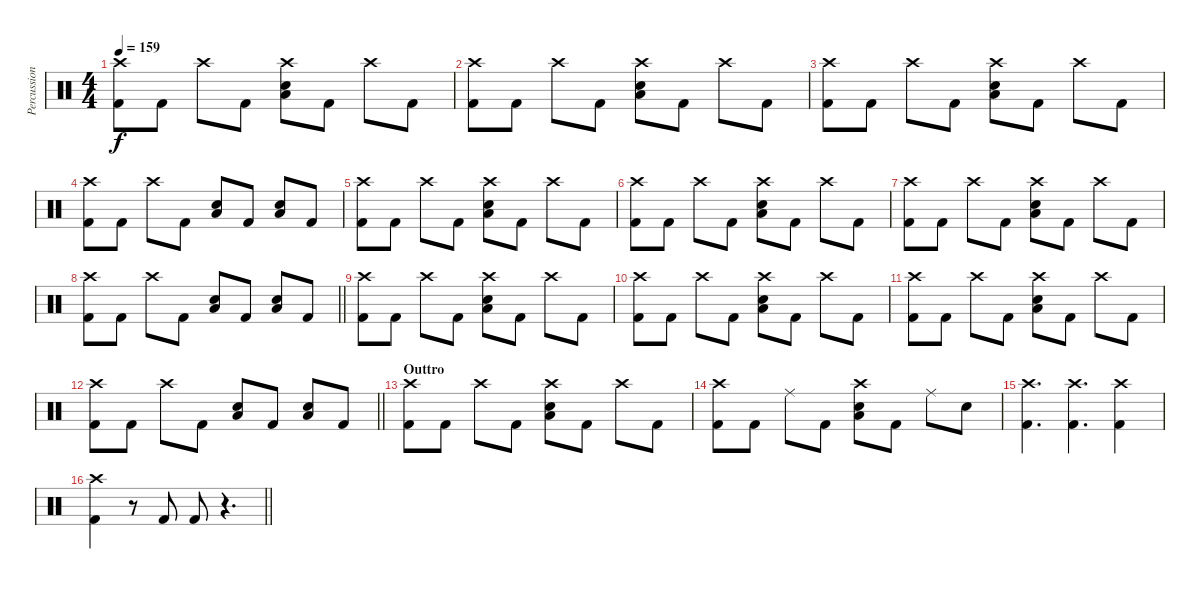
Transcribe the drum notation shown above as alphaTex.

\track ("Percussion" "Percussion") {instrument percussion}
\staff {score}
\articulation defaults
\ts (4 4)
\tempo 159
\clef neutral
\ks c
("Crash high (hit)" "Kick (hit) 2").8{dy f} "Kick (hit) 2".8 "Crash high (hit)".8 "Kick (hit) 2".8 ("Crash high (hit)" "Low Tom (hit)" "Electric Snare (hit)").8 "Kick (hit) 2".8 "Crash high (hit)".8 "Kick (hit) 2".8 |
("Crash high (hit)" "Kick (hit) 2").8 "Kick (hit) 2".8 "Crash high (hit)".8 "Kick (hit) 2".8 ("Crash high (hit)" "Low Tom (hit)" "Electric Snare (hit)").8 "Kick (hit) 2".8 "Crash high (hit)".8 "Kick (hit) 2".8 |
("Crash high (hit)" "Kick (hit) 2").8 "Kick (hit) 2".8 "Crash high (hit)".8 "Kick (hit) 2".8 ("Crash high (hit)" "Low Tom (hit)" "Electric Snare (hit)").8 "Kick (hit) 2".8 "Crash high (hit)".8 "Kick (hit) 2".8 |
("Crash high (hit)" "Kick (hit) 2").8 "Kick (hit) 2".8 "Crash high (hit)".8 "Kick (hit) 2".8 ("Low Tom (hit)" "Electric Snare (hit)").8 "Kick (hit) 2".8 ("Low Tom (hit)" "Electric Snare (hit)").8 "Kick (hit) 2".8 |
("Crash high (hit)" "Kick (hit) 2").8 "Kick (hit) 2".8 "Crash high (hit)".8 "Kick (hit) 2".8 ("Crash high (hit)" "Low Tom (hit)" "Electric Snare (hit)").8 "Kick (hit) 2".8 "Crash high (hit)".8 "Kick (hit) 2".8 |
("Crash high (hit)" "Kick (hit) 2").8 "Kick (hit) 2".8 "Crash high (hit)".8 "Kick (hit) 2".8 ("Crash high (hit)" "Low Tom (hit)" "Electric Snare (hit)").8 "Kick (hit) 2".8 "Crash high (hit)".8 "Kick (hit) 2".8 |
("Crash high (hit)" "Kick (hit) 2").8 "Kick (hit) 2".8 "Crash high (hit)".8 "Kick (hit) 2".8 ("Crash high (hit)" "Low Tom (hit)" "Electric Snare (hit)").8 "Kick (hit) 2".8 "Crash high (hit)".8 "Kick (hit) 2".8 |
\barLineRight lightlight
("Crash high (hit)" "Kick (hit) 2").8 "Kick (hit) 2".8 "Crash high (hit)".8 "Kick (hit) 2".8 ("Low Tom (hit)" "Electric Snare (hit)").8 "Kick (hit) 2".8 ("Low Tom (hit)" "Electric Snare (hit)").8 "Kick (hit) 2".8 |
("Crash high (hit)" "Kick (hit) 2").8 "Kick (hit) 2".8 "Crash high (hit)".8 "Kick (hit) 2".8 ("Crash high (hit)" "Low Tom (hit)" "Electric Snare (hit)").8 "Kick (hit) 2".8 "Crash high (hit)".8 "Kick (hit) 2".8 |
("Crash high (hit)" "Kick (hit) 2").8 "Kick (hit) 2".8 "Crash high (hit)".8 "Kick (hit) 2".8 ("Crash high (hit)" "Low Tom (hit)" "Electric Snare (hit)").8 "Kick (hit) 2".8 "Crash high (hit)".8 "Kick (hit) 2".8 |
("Crash high (hit)" "Kick (hit) 2").8 "Kick (hit) 2".8 "Crash high (hit)".8 "Kick (hit) 2".8 ("Crash high (hit)" "Low Tom (hit)" "Electric Snare (hit)").8 "Kick (hit) 2".8 "Crash high (hit)".8 "Kick (hit) 2".8 |
\barLineRight lightlight
("Crash high (hit)" "Kick (hit) 2").8 "Kick (hit) 2".8 "Crash high (hit)".8 "Kick (hit) 2".8 ("Low Tom (hit)" "Electric Snare (hit)").8 "Kick (hit) 2".8 ("Low Tom (hit)" "Electric Snare (hit)").8 "Kick (hit) 2".8 |
\section ("" "Outtro")
("Crash high (hit)" "Kick (hit) 2").8 "Kick (hit) 2".8 "Crash high (hit)".8 "Kick (hit) 2".8 ("Crash high (hit)" "Low Tom (hit)" "Electric Snare (hit)").8 "Kick (hit) 2".8 "Crash high (hit)".8 "Kick (hit) 2".8 |
("Crash high (hit)" "Kick (hit) 2").8 "Kick (hit) 2".8 "Ride (middle)".8 "Kick (hit) 2".8 ("Crash high (hit)" "Low Tom (hit)" "Electric Snare (hit)").8 "Kick (hit) 2".8 "Ride (middle)".8 "Electric Snare (hit)".8 |
("Crash high (hit)" "Kick (hit) 2").4{d} ("Crash high (hit)" "Kick (hit) 2").4{d} ("Crash high (hit)" "Kick (hit) 2").4 |
\barLineRight lightlight
("Crash high (hit)" "Kick (hit) 2").4 r.8 "Kick (hit) 2".8 "Kick (hit) 2".8 r.4{d}
